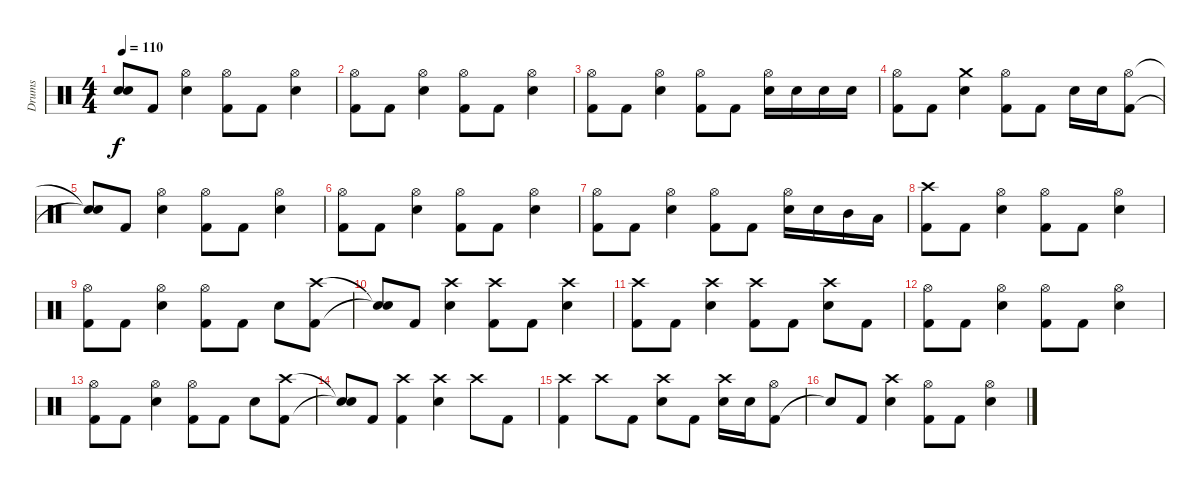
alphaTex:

\track ("Drums" "Drums") {instrument percussion}
\staff {score}
\articulation defaults
\ts (4 4)
\tempo 110
\clef neutral
\ks c
("Snare (hit)"{t} "Snare (hit)"{t}).8{dy f} "Kick (hit) 2".8 ("Hi-Hat (open)" "Snare (hit) 2").4 ("Kick (hit) 2" "Hi-Hat (open)").8 "Kick (hit) 2".8 ("Hi-Hat (open)" "Snare (hit) 2").4 |
("Kick (hit) 2" "Hi-Hat (open)").8 "Kick (hit) 2".8 ("Hi-Hat (open)" "Snare (hit) 2").4 ("Kick (hit) 2" "Hi-Hat (open)").8 "Kick (hit) 2".8 ("Hi-Hat (open)" "Snare (hit) 2").4 |
("Kick (hit) 2" "Hi-Hat (open)").8 "Kick (hit) 2".8 ("Hi-Hat (open)" "Snare (hit) 2").4 ("Kick (hit) 2" "Hi-Hat (open)").8 "Kick (hit) 2".8 ("Hi-Hat (open)" "Snare (hit) 2").16 "Snare (hit) 2".16 "Snare (hit) 2".16 "Snare (hit) 2".16 |
("Kick (hit) 2" "Hi-Hat (open)").8 "Kick (hit) 2".8 ("Crash medium (hit)" "Snare (hit) 2").4 ("Kick (hit) 2" "Hi-Hat (open)").8 "Kick (hit) 2".8 "Snare (hit) 2".16 "Snare (hit) 2".16 ("Kick (hit) 2" "Hi-Hat (open)").8 |
("Snare (hit)"{t} "Snare (hit)"{t}).8 "Kick (hit) 2".8 ("Hi-Hat (open)" "Snare (hit) 2").4 ("Kick (hit) 2" "Hi-Hat (open)").8 "Kick (hit) 2".8 ("Hi-Hat (open)" "Snare (hit) 2").4 |
("Kick (hit) 2" "Hi-Hat (open)").8 "Kick (hit) 2".8 ("Hi-Hat (open)" "Snare (hit) 2").4 ("Kick (hit) 2" "Hi-Hat (open)").8 "Kick (hit) 2".8 ("Hi-Hat (open)" "Snare (hit) 2").4 |
("Kick (hit) 2" "Hi-Hat (open)").8 "Kick (hit) 2".8 ("Hi-Hat (open)" "Snare (hit) 2").4 ("Kick (hit) 2" "Hi-Hat (open)").8 "Kick (hit) 2".8 ("Hi-Hat (open)" "Snare (hit) 2").16 "Snare (hit) 2".16 "Mid Tom (hit)".16 "Low Tom (hit)".16 |
("Kick (hit) 2" "Crash high (hit)").8 "Kick (hit) 2".8 ("Hi-Hat (open)" "Snare (hit) 2").4 ("Kick (hit) 2" "Hi-Hat (open)").8 "Kick (hit) 2".8 ("Hi-Hat (open)" "Snare (hit) 2").4 |
("Kick (hit) 2" "Hi-Hat (open)").8 "Kick (hit) 2".8 ("Hi-Hat (open)" "Snare (hit) 2").4 ("Kick (hit) 2" "Hi-Hat (open)").8 "Kick (hit) 2".8 "Snare (hit) 2".8 ("Kick (hit) 2" "Crash high (hit)").8 |
("Snare (hit)"{t} "Snare (hit)"{t}).8 "Kick (hit) 2".8 ("Crash high (hit)" "Snare (hit) 2").4 ("Kick (hit) 2" "Crash high (hit)").8 "Kick (hit) 2".8 ("Crash high (hit)" "Snare (hit) 2").4 |
("Kick (hit) 2" "Crash high (hit)").8 "Kick (hit) 2".8 ("Crash high (hit)" "Snare (hit) 2").4 ("Kick (hit) 2" "Crash high (hit)").8 "Kick (hit) 2".8 ("Crash high (hit)" "Snare (hit) 2").8 "Kick (hit) 2".8 |
("Kick (hit) 2" "Hi-Hat (open)").8 "Kick (hit) 2".8 ("Hi-Hat (open)" "Snare (hit) 2").4 ("Kick (hit) 2" "Hi-Hat (open)").8 "Kick (hit) 2".8 ("Hi-Hat (open)" "Snare (hit) 2").4 |
("Kick (hit) 2" "Hi-Hat (open)").8 "Kick (hit) 2".8 ("Hi-Hat (open)" "Snare (hit) 2").4 ("Kick (hit) 2" "Hi-Hat (open)").8 "Kick (hit) 2".8 "Snare (hit) 2".8 ("Kick (hit) 2" "Crash high (hit)").8 |
("Snare (hit)"{t} "Snare (hit)"{t}).8 "Kick (hit) 2".8 ("Kick (hit) 2" "Crash high (hit)").4 ("Crash high (hit)" "Snare (hit) 2").4 "Crash high (hit)".8 "Kick (hit) 2".8 |
("Kick (hit) 2" "Crash high (hit)").4 "Crash high (hit)".8 "Kick (hit) 2".8 ("Crash high (hit)" "Snare (hit) 2").8 "Kick (hit) 2".8 ("Crash high (hit)" "Snare (hit) 2").16 "Snare (hit) 2".16 ("Kick (hit) 2" "Hi-Hat (open)").8 |
"Snare (hit)"{t}.8 "Kick (hit) 2".8 ("Crash high (hit)" "Snare (hit) 2").4 ("Kick (hit) 2" "Hi-Hat (open)").8 "Kick (hit) 2".8 ("Hi-Hat (open)" "Snare (hit) 2").4
